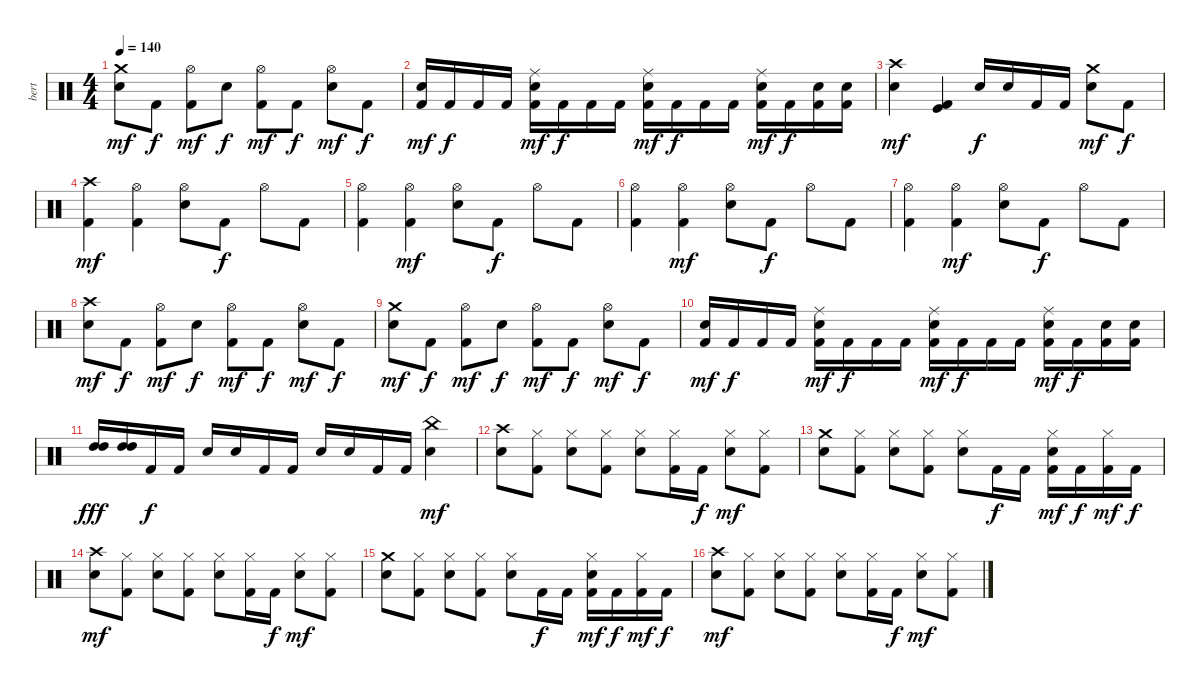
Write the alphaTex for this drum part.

\track ("bert" "bert") {instrument percussion}
\staff {score}
\articulation defaults
\ts (4 4)
\tempo 140
\clef neutral
\ks c
("Crash medium (hit)" "Snare (hit) 2").8{dy mf} "Kick (hit) 2".8{dy f} ("Hi-Hat (open)" "Kick (hit) 2").8{dy mf} "Snare (hit) 2".8{dy f} ("Hi-Hat (open)" "Kick (hit) 2").8{dy mf} "Kick (hit) 2".8{dy f} ("Hi-Hat (open)" "Snare (hit) 2").8{dy mf} "Kick (hit) 2".8{dy f} |
("Snare (hit) 2" "Kick (hit) 2").16{dy mf} "Kick (hit) 2".16{dy f} "Kick (hit) 2".16 "Kick (hit) 2".16 ("Ride (middle)" "Snare (hit) 2" "Kick (hit) 2").16{dy mf} "Kick (hit) 2".16{dy f} "Kick (hit) 2".16 "Kick (hit) 2".16 ("Ride (middle)" "Snare (hit) 2" "Kick (hit) 2").16{dy mf} "Kick (hit) 2".16{dy f} "Kick (hit) 2".16 "Kick (hit) 2".16 ("Ride (middle)" "Snare (hit) 2" "Kick (hit) 2").16{dy mf} "Kick (hit) 2".16{dy f} ("Snare (hit) 2" "Kick (hit) 2").16 ("Snare (hit) 2" "Kick (hit) 2").16 |
("Crash high (hit)" "Snare (hit) 2").4{dy mf} ("Kick (hit)" "Kick (hit) 2").4 "Snare (hit) 2".16{dy f} "Snare (hit) 2".16 "Kick (hit) 2".16 "Kick (hit) 2".16 ("Crash medium (hit)" "Snare (hit) 2").8{dy mf} "Kick (hit) 2".8{dy f} |
("Crash high (hit)" "Kick (hit) 2").4{dy mf} ("Hi-Hat (open)" "Kick (hit) 2").4 ("Hi-Hat (open)" "Snare (hit) 2").8 "Kick (hit) 2".8{dy f} "Hi-Hat (open)".8 "Kick (hit) 2".8 |
("Hi-Hat (open)" "Kick (hit) 2").4 ("Hi-Hat (open)" "Kick (hit) 2").4{dy mf} ("Hi-Hat (open)" "Snare (hit) 2").8 "Kick (hit) 2".8{dy f} "Hi-Hat (open)".8 "Kick (hit) 2".8 |
("Hi-Hat (open)" "Kick (hit) 2").4 ("Hi-Hat (open)" "Kick (hit) 2").4{dy mf} ("Hi-Hat (open)" "Snare (hit) 2").8 "Kick (hit) 2".8{dy f} "Hi-Hat (open)".8 "Kick (hit) 2".8 |
("Hi-Hat (open)" "Kick (hit) 2").4 ("Hi-Hat (open)" "Kick (hit) 2").4{dy mf} ("Hi-Hat (open)" "Snare (hit) 2").8 "Kick (hit) 2".8{dy f} "Hi-Hat (open)".8 "Kick (hit) 2".8 |
("Crash high (hit)" "Snare (hit) 2").8{dy mf} "Kick (hit) 2".8{dy f} ("Hi-Hat (open)" "Kick (hit) 2").8{dy mf} "Snare (hit) 2".8{dy f} ("Hi-Hat (open)" "Kick (hit) 2").8{dy mf} "Kick (hit) 2".8{dy f} ("Hi-Hat (open)" "Snare (hit) 2").8{dy mf} "Kick (hit) 2".8{dy f} |
("Crash medium (hit)" "Snare (hit) 2").8{dy mf} "Kick (hit) 2".8{dy f} ("Hi-Hat (open)" "Kick (hit) 2").8{dy mf} "Snare (hit) 2".8{dy f} ("Hi-Hat (open)" "Kick (hit) 2").8{dy mf} "Kick (hit) 2".8{dy f} ("Hi-Hat (open)" "Snare (hit) 2").8{dy mf} "Kick (hit) 2".8{dy f} |
("Snare (hit) 2" "Kick (hit) 2").16{dy mf} "Kick (hit) 2".16{dy f} "Kick (hit) 2".16 "Kick (hit) 2".16 ("Ride (middle)" "Snare (hit) 2" "Kick (hit) 2").16{dy mf} "Kick (hit) 2".16{dy f} "Kick (hit) 2".16 "Kick (hit) 2".16 ("Ride (middle)" "Snare (hit) 2" "Kick (hit) 2").16{dy mf} "Kick (hit) 2".16{dy f} "Kick (hit) 2".16 "Kick (hit) 2".16 ("Ride (middle)" "Snare (hit) 2" "Kick (hit) 2").16{dy mf} "Kick (hit) 2".16{dy f} ("Snare (hit) 2" "Kick (hit) 2").16 ("Snare (hit) 2" "Kick (hit) 2").16 |
("High Tom (hit)" "High Tom (hit)").16{dy fff} ("High Tom (hit)" "High Tom (hit)").16 "Kick (hit) 2".16{dy f} "Kick (hit) 2".16 "Snare (hit) 2".16 "Snare (hit) 2".16 "Kick (hit) 2".16 "Kick (hit) 2".16 "Snare (hit) 2".16 "Snare (hit) 2".16 "Kick (hit) 2".16 "Kick (hit) 2".16 ("China (hit)" "Snare (hit) 2").4{dy mf} |
("Crash high (hit)" "Snare (hit) 2").8 ("Hi-Hat (closed)" "Kick (hit) 2").8 ("Hi-Hat (closed)" "Snare (hit) 2").8 ("Hi-Hat (closed)" "Kick (hit) 2").8 ("Hi-Hat (closed)" "Snare (hit) 2").8 ("Hi-Hat (closed)" "Kick (hit) 2").16 "Kick (hit) 2".16{dy f} ("Hi-Hat (closed)" "Snare (hit) 2").8{dy mf} ("Hi-Hat (closed)" "Kick (hit) 2").8 |
("Crash medium (hit)" "Snare (hit) 2").8 ("Hi-Hat (closed)" "Kick (hit) 2").8 ("Hi-Hat (closed)" "Snare (hit) 2").8 ("Hi-Hat (closed)" "Kick (hit) 2").8 ("Hi-Hat (closed)" "Snare (hit) 2").8 "Kick (hit) 2".16{dy f} "Kick (hit) 2".16 ("Hi-Hat (closed)" "Snare (hit) 2" "Kick (hit) 2").16{dy mf} "Kick (hit) 2".16{dy f} ("Hi-Hat (closed)" "Kick (hit) 2").16{dy mf} "Kick (hit) 2".16{dy f} |
("Crash high (hit)" "Snare (hit) 2").8{dy mf} ("Hi-Hat (closed)" "Kick (hit) 2").8 ("Hi-Hat (closed)" "Snare (hit) 2").8 ("Hi-Hat (closed)" "Kick (hit) 2").8 ("Hi-Hat (closed)" "Snare (hit) 2").8 ("Hi-Hat (closed)" "Kick (hit) 2").16 "Kick (hit) 2".16{dy f} ("Hi-Hat (closed)" "Snare (hit) 2").8{dy mf} ("Hi-Hat (closed)" "Kick (hit) 2").8 |
("Crash medium (hit)" "Snare (hit) 2").8 ("Hi-Hat (closed)" "Kick (hit) 2").8 ("Hi-Hat (closed)" "Snare (hit) 2").8 ("Hi-Hat (closed)" "Kick (hit) 2").8 ("Hi-Hat (closed)" "Snare (hit) 2").8 "Kick (hit) 2".16{dy f} "Kick (hit) 2".16 ("Hi-Hat (closed)" "Snare (hit) 2" "Kick (hit) 2").16{dy mf} "Kick (hit) 2".16{dy f} ("Hi-Hat (closed)" "Kick (hit) 2").16{dy mf} "Kick (hit) 2".16{dy f} |
("Crash high (hit)" "Snare (hit) 2").8{dy mf} ("Hi-Hat (closed)" "Kick (hit) 2").8 ("Hi-Hat (closed)" "Snare (hit) 2").8 ("Hi-Hat (closed)" "Kick (hit) 2").8 ("Hi-Hat (closed)" "Snare (hit) 2").8 ("Hi-Hat (closed)" "Kick (hit) 2").16 "Kick (hit) 2".16{dy f} ("Hi-Hat (closed)" "Snare (hit) 2").8{dy mf} ("Hi-Hat (closed)" "Kick (hit) 2").8
